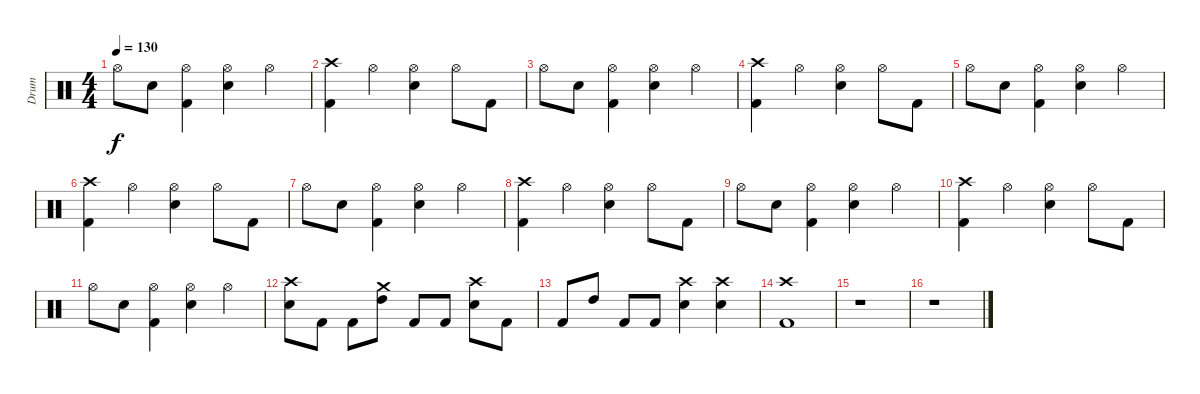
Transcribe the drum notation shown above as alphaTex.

\track ("Drum" "Drum") {instrument percussion}
\staff {score}
\articulation defaults
\ts (4 4)
\tempo 130
\clef neutral
\ks c "Hi-Hat (open)".8{dy f} "Snare (hit) 2".8
("Kick (hit) 2" "Hi-Hat (open)").4 ("Snare (hit) 2" "Hi-Hat (open)").4 "Hi-Hat (open)".4 |
("Crash high (hit)" "Kick (hit) 2").4 "Hi-Hat (open)".4 ("Snare (hit) 2" "Hi-Hat (open)").4 "Hi-Hat (open)".8 "Kick (hit) 2".8 |
"Hi-Hat (open)".8 "Snare (hit) 2".8 ("Kick (hit) 2" "Hi-Hat (open)").4 ("Snare (hit) 2" "Hi-Hat (open)").4 "Hi-Hat (open)".4 |
("Crash high (hit)" "Kick (hit) 2").4 "Hi-Hat (open)".4 ("Snare (hit) 2" "Hi-Hat (open)").4 "Hi-Hat (open)".8 "Kick (hit) 2".8 |
"Hi-Hat (open)".8 "Snare (hit) 2".8 ("Kick (hit) 2" "Hi-Hat (open)").4 ("Snare (hit) 2" "Hi-Hat (open)").4 "Hi-Hat (open)".4 |
("Crash high (hit)" "Kick (hit) 2").4 "Hi-Hat (open)".4 ("Snare (hit) 2" "Hi-Hat (open)").4 "Hi-Hat (open)".8 "Kick (hit) 2".8 |
"Hi-Hat (open)".8 "Snare (hit) 2".8 ("Kick (hit) 2" "Hi-Hat (open)").4 ("Snare (hit) 2" "Hi-Hat (open)").4 "Hi-Hat (open)".4 |
("Crash high (hit)" "Kick (hit) 2").4 "Hi-Hat (open)".4 ("Snare (hit) 2" "Hi-Hat (open)").4 "Hi-Hat (open)".8 "Kick (hit) 2".8 |
"Hi-Hat (open)".8 "Snare (hit) 2".8 ("Kick (hit) 2" "Hi-Hat (open)").4 ("Snare (hit) 2" "Hi-Hat (open)").4 "Hi-Hat (open)".4 |
("Crash high (hit)" "Kick (hit) 2").4 "Hi-Hat (open)".4 ("Snare (hit) 2" "Hi-Hat (open)").4 "Hi-Hat (open)".8 "Kick (hit) 2".8 |
"Hi-Hat (open)".8 "Snare (hit) 2".8 ("Kick (hit) 2" "Hi-Hat (open)").4 ("Snare (hit) 2" "Hi-Hat (open)").4 "Hi-Hat (open)".4 |
("Snare (hit) 2" "Crash high (hit)").8 "Kick (hit) 2".8 "Kick (hit) 2".8 ("High Tom (hit)" "Crash medium (hit)").8 "Kick (hit) 2".8 "Kick (hit) 2".8 ("Snare (hit) 2" "Crash high (hit)").8 "Kick (hit) 2".8 |
"Kick (hit) 2".8 "High Tom (hit)".8 "Kick (hit) 2".8 "Kick (hit) 2".8 ("Snare (hit) 2" "Crash high (hit)").4 ("Snare (hit) 2" "Crash high (hit)").4 |
("Kick (hit) 2" "Crash high (hit)").1 |
r.1 |
r.1
